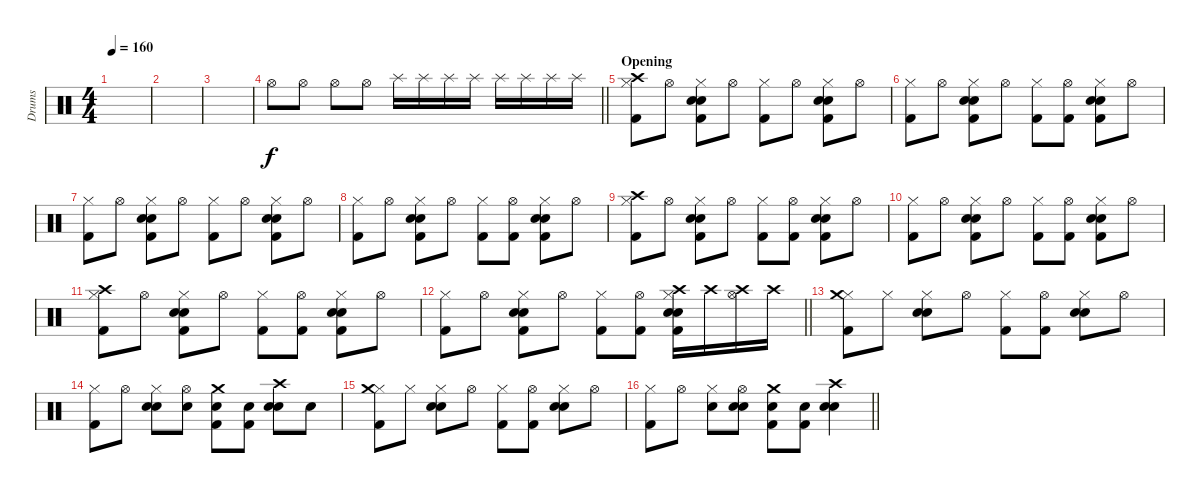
\track ("Drums" "Drums") {instrument percussion}
\staff {score}
\articulation defaults
\ts (4 4)
\tempo 160
\clef neutral
\ks c
|
|
|
\barLineRight lightlight "Hi-Hat (open)".8 "Hi-Hat (open)".8 "Hi-Hat (open)".8 "Hi-Hat (open)".8 "Splash (hit)".16 "Splash (hit)".16 "Splash (hit)".16 "Splash (hit)".16 "Splash (hit)".16 "Splash (hit)".16 "Splash (hit)".16 "Splash (hit)".16
|
\section ("" "Opening")
("Hi-Hat (closed)" "Crash high (hit)" "Kick (hit) 2").8 "Hi-Hat (open)".8 ("Hi-Hat (closed)" "Electric Snare (hit)" "Hand Clap (hit)" "Kick (hit) 2").8 "Hi-Hat (open)".8 ("Hi-Hat (closed)" "Kick (hit) 2").8 "Hi-Hat (open)".8 ("Hi-Hat (closed)" "Electric Snare (hit)" "Hand Clap (hit)" "Kick (hit) 2").8 "Hi-Hat (open)".8 |
("Hi-Hat (closed)" "Kick (hit) 2").8 "Hi-Hat (open)".8 ("Hi-Hat (closed)" "Electric Snare (hit)" "Hand Clap (hit)" "Kick (hit) 2").8 "Hi-Hat (open)".8 ("Hi-Hat (closed)" "Kick (hit) 2").8 ("Hi-Hat (open)" "Kick (hit) 2").8 ("Hi-Hat (closed)" "Electric Snare (hit)" "Hand Clap (hit)" "Kick (hit) 2").8 "Hi-Hat (open)".8 |
("Hi-Hat (closed)" "Kick (hit) 2").8 "Hi-Hat (open)".8 ("Hi-Hat (closed)" "Electric Snare (hit)" "Hand Clap (hit)" "Kick (hit) 2").8 "Hi-Hat (open)".8 ("Hi-Hat (closed)" "Kick (hit) 2").8 "Hi-Hat (open)".8 ("Hi-Hat (closed)" "Electric Snare (hit)" "Hand Clap (hit)" "Kick (hit) 2").8 "Hi-Hat (open)".8 |
("Hi-Hat (closed)" "Kick (hit) 2").8 "Hi-Hat (open)".8 ("Hi-Hat (closed)" "Electric Snare (hit)" "Hand Clap (hit)" "Kick (hit) 2").8 "Hi-Hat (open)".8 ("Hi-Hat (closed)" "Kick (hit) 2").8 ("Hi-Hat (open)" "Kick (hit) 2").8 ("Hi-Hat (closed)" "Electric Snare (hit)" "Hand Clap (hit)" "Kick (hit) 2").8 "Hi-Hat (open)".8 |
("Hi-Hat (closed)" "Crash high (hit)" "Kick (hit) 2").8 "Hi-Hat (open)".8 ("Hi-Hat (closed)" "Electric Snare (hit)" "Hand Clap (hit)" "Kick (hit) 2").8 "Hi-Hat (open)".8 ("Hi-Hat (closed)" "Kick (hit) 2").8 ("Hi-Hat (open)" "Kick (hit) 2").8 ("Hi-Hat (closed)" "Electric Snare (hit)" "Hand Clap (hit)" "Kick (hit) 2").8 "Hi-Hat (open)".8 |
("Hi-Hat (closed)" "Kick (hit) 2").8 "Hi-Hat (open)".8 ("Hi-Hat (closed)" "Electric Snare (hit)" "Hand Clap (hit)" "Kick (hit) 2").8 "Hi-Hat (open)".8 ("Hi-Hat (closed)" "Kick (hit) 2").8 ("Hi-Hat (open)" "Kick (hit) 2").8 ("Hi-Hat (closed)" "Electric Snare (hit)" "Hand Clap (hit)" "Kick (hit) 2").8 "Hi-Hat (open)".8 |
("Hi-Hat (closed)" "Crash high (hit)" "Kick (hit) 2").8 "Hi-Hat (open)".8 ("Hi-Hat (closed)" "Electric Snare (hit)" "Hand Clap (hit)" "Kick (hit) 2").8 "Hi-Hat (open)".8 ("Hi-Hat (closed)" "Kick (hit) 2").8 ("Hi-Hat (open)" "Kick (hit) 2").8 ("Hi-Hat (closed)" "Electric Snare (hit)" "Hand Clap (hit)" "Kick (hit) 2").8 "Hi-Hat (open)".8 |
\barLineRight lightlight
("Hi-Hat (closed)" "Kick (hit) 2").8 "Hi-Hat (open)".8 ("Hi-Hat (closed)" "Electric Snare (hit)" "Hand Clap (hit)" "Kick (hit) 2").8 "Hi-Hat (open)".8 ("Hi-Hat (closed)" "Kick (hit) 2").8 ("Hi-Hat (open)" "Kick (hit) 2").8 ("Hi-Hat (closed)" "Electric Snare (hit)" "Hand Clap (hit)" "Crash high (hit)" "Kick (hit) 2").16 "Crash high (hit)".16 ("Hi-Hat (open)" "Crash high (hit)").16 "Crash high (hit)".16 |
("Hi-Hat (closed)" "Crash medium (hit)" "Kick (hit) 2").8 "Hi-Hat (closed)".8 ("Hi-Hat (closed)" "Electric Snare (hit)" "Hand Clap (hit)").8 "Hi-Hat (open)".8 ("Hi-Hat (closed)" "Kick (hit) 2").8 ("Hi-Hat (open)" "Kick (hit) 2").8 ("Hi-Hat (closed)" "Electric Snare (hit)" "Hand Clap (hit)").8 "Hi-Hat (open)".8 |
("Hi-Hat (closed)" "Kick (hit) 2").8 "Hi-Hat (open)".8 ("Hi-Hat (closed)" "Electric Snare (hit)" "Hand Clap (hit)").8 ("Hi-Hat (open)" "Electric Snare (hit)").8 ("Crash medium (hit)" "Electric Snare (hit)" "Kick (hit) 2").8 ("Electric Snare (hit)" "Kick (hit) 2").8 ("Crash high (hit)" "Electric Snare (hit)" "Hand Clap (hit)").8 "Electric Snare (hit)".8 |
("Hi-Hat (closed)" "Crash medium (hit)" "Kick (hit) 2").8 "Hi-Hat (closed)".8 ("Hi-Hat (closed)" "Electric Snare (hit)" "Hand Clap (hit)").8 "Hi-Hat (open)".8 ("Hi-Hat (closed)" "Kick (hit) 2").8 ("Hi-Hat (open)" "Kick (hit) 2").8 ("Hi-Hat (closed)" "Electric Snare (hit)" "Hand Clap (hit)").8 "Hi-Hat (open)".8 |
\barLineRight lightlight
("Hi-Hat (closed)" "Kick (hit) 2").8 "Hi-Hat (open)".8 ("Hi-Hat (closed)" "Electric Snare (hit)").8 ("Hi-Hat (open)" "Electric Snare (hit)" "Hand Clap (hit)").8 ("Crash medium (hit)" "Electric Snare (hit)" "Kick (hit) 2").8 ("Electric Snare (hit)" "Kick (hit) 2").8 ("Crash high (hit)" "Electric Snare (hit)" "Hand Clap (hit)").4
